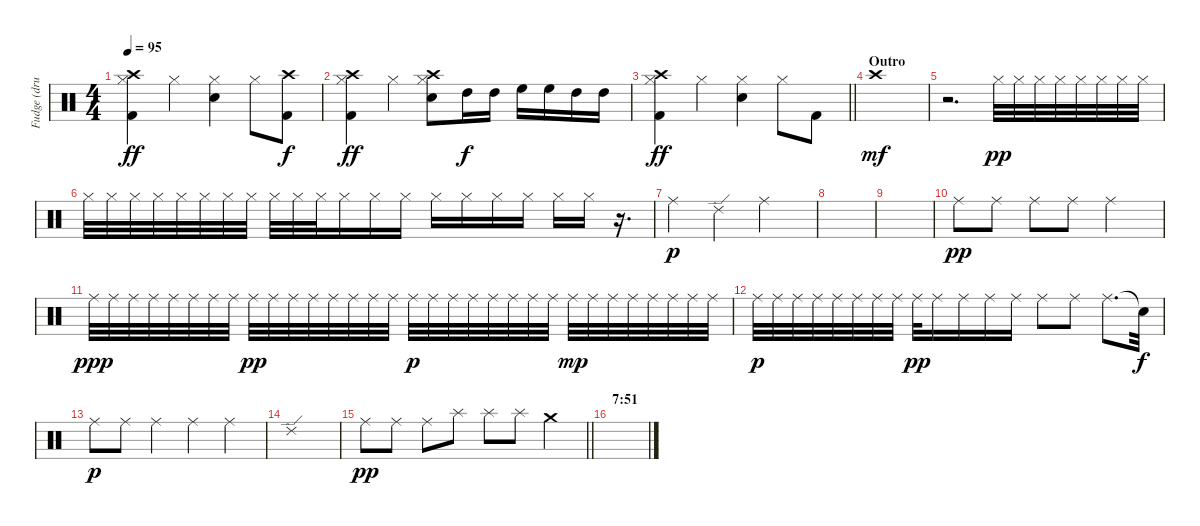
\track ("Fudge (drums)" "Fudge (dru") {instrument percussion}
\staff {score}
\articulation defaults
\ts (4 4)
\tempo 95
\clef neutral
\ks c
("Crash high (hit)" "Kick (hit) 2" "Hi-Hat (closed)").4{dy ff} "Hi-Hat (closed)".4 ("Electric Snare (hit)" "Hi-Hat (closed)").4 "Hi-Hat (closed)".8 ("Crash high (hit)" "Kick (hit) 2").8{dy f} |
("Crash high (hit)" "Kick (hit) 2" "Hi-Hat (closed)").4{dy ff} "Hi-Hat (closed)".4 ("Crash high (hit)" "Electric Snare (hit)" "Hi-Hat (closed)").8 "High Tom (hit)".16{dy f} "High Tom (hit)".16 "High Floor Tom (hit)".16 "High Floor Tom (hit)".16 "High Tom (hit)".16 "High Tom (hit)".16 |
\barLineRight lightlight
("Crash high (hit)" "Kick (hit) 2" "Hi-Hat (closed)").4{dy ff} "Hi-Hat (closed)".4 ("Electric Snare (hit)" "Hi-Hat (closed)").4 "Hi-Hat (closed)".8 "Kick (hit) 2".8 |
\section ("" "Outro")
"Crash high (hit)".1{dy mf} |
r.2{d} "Hi-Hat (closed)".32{dy pp} "Hi-Hat (closed)".32 "Hi-Hat (closed)".32 "Hi-Hat (closed)".32 "Hi-Hat (closed)".32 "Hi-Hat (closed)".32 "Hi-Hat (closed)".32 "Hi-Hat (closed)".32 |
"Hi-Hat (closed)".32 "Hi-Hat (closed)".32 "Hi-Hat (closed)".32 "Hi-Hat (closed)".32 "Hi-Hat (closed)".32 "Hi-Hat (closed)".32 "Hi-Hat (closed)".32 "Hi-Hat (closed)".32 "Hi-Hat (closed)".32 "Hi-Hat (closed)".32 "Hi-Hat (closed)".32 "Hi-Hat (closed)".16 "Hi-Hat (closed)".16 "Hi-Hat (closed)".16 "Hi-Hat (closed)".16 "Hi-Hat (closed)".16 "Hi-Hat (closed)".16 "Hi-Hat (closed)".16 "Hi-Hat (closed)".16 "Hi-Hat (closed)".16 r.16{d} |
"Ride (middle)".4{dy p} "Ride (edge) 2".4 "Ride (middle)".2 |
|
|
"Ride (middle)".8{dy pp} "Ride (middle)".8 "Ride (middle)".8 "Ride (middle)".8 "Ride (middle)".2 |
"Ride (middle)".32{dy ppp} "Ride (middle)".32 "Ride (middle)".32 "Ride (middle)".32 "Ride (middle)".32 "Ride (middle)".32 "Ride (middle)".32 "Ride (middle)".32 "Ride (middle)".32{dy pp} "Ride (middle)".32 "Ride (middle)".32 "Ride (middle)".32 "Ride (middle)".32 "Ride (middle)".32 "Ride (middle)".32 "Ride (middle)".32 "Ride (middle)".32{dy p} "Ride (middle)".32 "Ride (middle)".32 "Ride (middle)".32 "Ride (middle)".32 "Ride (middle)".32 "Ride (middle)".32 "Ride (middle)".32 "Ride (middle)".32{dy mp} "Ride (middle)".32 "Ride (middle)".32 "Ride (middle)".32 "Ride (middle)".32 "Ride (middle)".32 "Ride (middle)".32 "Ride (middle)".32 |
"Ride (middle)".32{dy p} "Ride (middle)".32 "Ride (middle)".32 "Ride (middle)".32 "Ride (middle)".32 "Ride (middle)".32 "Ride (middle)".32 "Ride (middle)".32 "Ride (middle)".32{dy pp} "Ride (middle)".16 "Ride (middle)".16 "Ride (middle)".16 "Ride (middle)".16 "Ride (middle)".8 "Ride (middle)".8 "Ride (middle)".8{d} "Snare (hit)"{t}.32{dy f} |
"Ride (middle)".8{dy p} "Ride (middle)".8 "Ride (middle)".4 "Ride (middle)".4 "Ride (middle)".4 |
"Ride (edge) 2".1 |
\barLineRight lightlight "Ride (middle)".8{dy pp} "Ride (middle)".8 "Ride (middle)".8 "Splash (hit)".8 "Splash (hit)".8 "Splash (hit)".8 "Crash medium (hit)".4
|
\section ("" "7:51")
